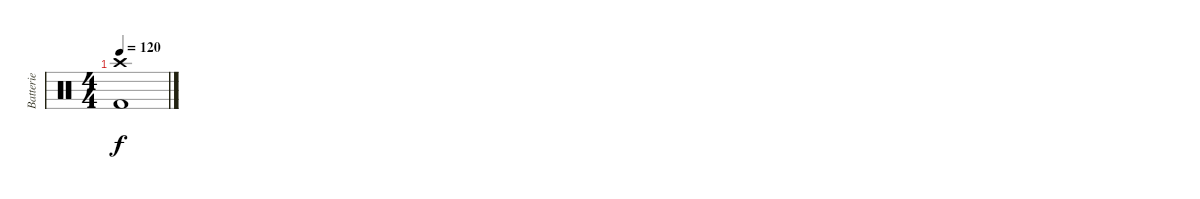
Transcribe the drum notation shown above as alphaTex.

\track ("Batterie" "Batterie") {instrument percussion}
\staff {score}
\articulation defaults
\ts (4 4)
\tempo 120
\clef neutral
\ks c
("Crash high (hit)" "Kick (hit) 2").1{dy f volume 0}
